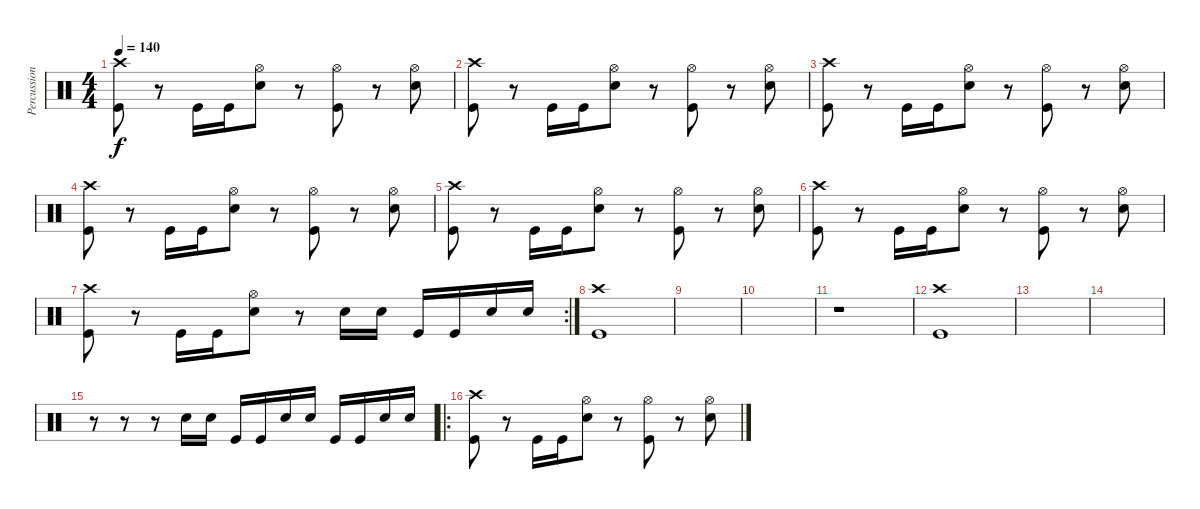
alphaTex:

\track ("Percussion" "Percussion") {instrument percussion}
\staff {score}
\articulation defaults
\ts (4 4)
\tempo 140
\clef neutral
\ks c
("Crash high (hit)" "Kick (hit)").8{dy f} r.8 "Kick (hit)".16 "Kick (hit)".16 ("Hi-Hat (open)" "Electric Snare (hit)").8 r.8 ("Hi-Hat (open)" "Kick (hit)").8 r.8 ("Hi-Hat (open)" "Electric Snare (hit)").8 |
("Crash high (hit)" "Kick (hit)").8 r.8 "Kick (hit)".16 "Kick (hit)".16 ("Hi-Hat (open)" "Electric Snare (hit)").8 r.8 ("Hi-Hat (open)" "Kick (hit)").8 r.8 ("Hi-Hat (open)" "Electric Snare (hit)").8 |
("Crash high (hit)" "Kick (hit)").8 r.8 "Kick (hit)".16 "Kick (hit)".16 ("Hi-Hat (open)" "Electric Snare (hit)").8 r.8 ("Hi-Hat (open)" "Kick (hit)").8 r.8 ("Hi-Hat (open)" "Electric Snare (hit)").8 |
("Crash high (hit)" "Kick (hit)").8 r.8 "Kick (hit)".16 "Kick (hit)".16 ("Hi-Hat (open)" "Electric Snare (hit)").8 r.8 ("Hi-Hat (open)" "Kick (hit)").8 r.8 ("Hi-Hat (open)" "Electric Snare (hit)").8 |
("Crash high (hit)" "Kick (hit)").8 r.8 "Kick (hit)".16 "Kick (hit)".16 ("Hi-Hat (open)" "Electric Snare (hit)").8 r.8 ("Hi-Hat (open)" "Kick (hit)").8 r.8 ("Hi-Hat (open)" "Electric Snare (hit)").8 |
("Crash high (hit)" "Kick (hit)").8 r.8 "Kick (hit)".16 "Kick (hit)".16 ("Hi-Hat (open)" "Electric Snare (hit)").8 r.8 ("Hi-Hat (open)" "Kick (hit)").8 r.8 ("Hi-Hat (open)" "Electric Snare (hit)").8 |
\rc 2
("Crash high (hit)" "Kick (hit)").8 r.8 "Kick (hit)".16 "Kick (hit)".16 ("Hi-Hat (open)" "Electric Snare (hit)").8 r.8 "Electric Snare (hit)".16 "Electric Snare (hit)".16 "Kick (hit)".16 "Kick (hit)".16 "Electric Snare (hit)".16 "Electric Snare (hit)".16 |
("Crash high (hit)" "Kick (hit)").1 |
|
|
r.1 |
("Crash high (hit)" "Kick (hit)").1 |
|
|
r.8 r.8 r.8 "Electric Snare (hit)".16 "Electric Snare (hit)".16 "Kick (hit)".16 "Kick (hit)".16 "Electric Snare (hit)".16 "Electric Snare (hit)".16 "Kick (hit)".16 "Kick (hit)".16 "Electric Snare (hit)".16 "Electric Snare (hit)".16 |
\ro
("Crash high (hit)" "Kick (hit)").8 r.8 "Kick (hit)".16 "Kick (hit)".16 ("Hi-Hat (open)" "Electric Snare (hit)").8 r.8 ("Hi-Hat (open)" "Kick (hit)").8 r.8 ("Hi-Hat (open)" "Electric Snare (hit)").8
